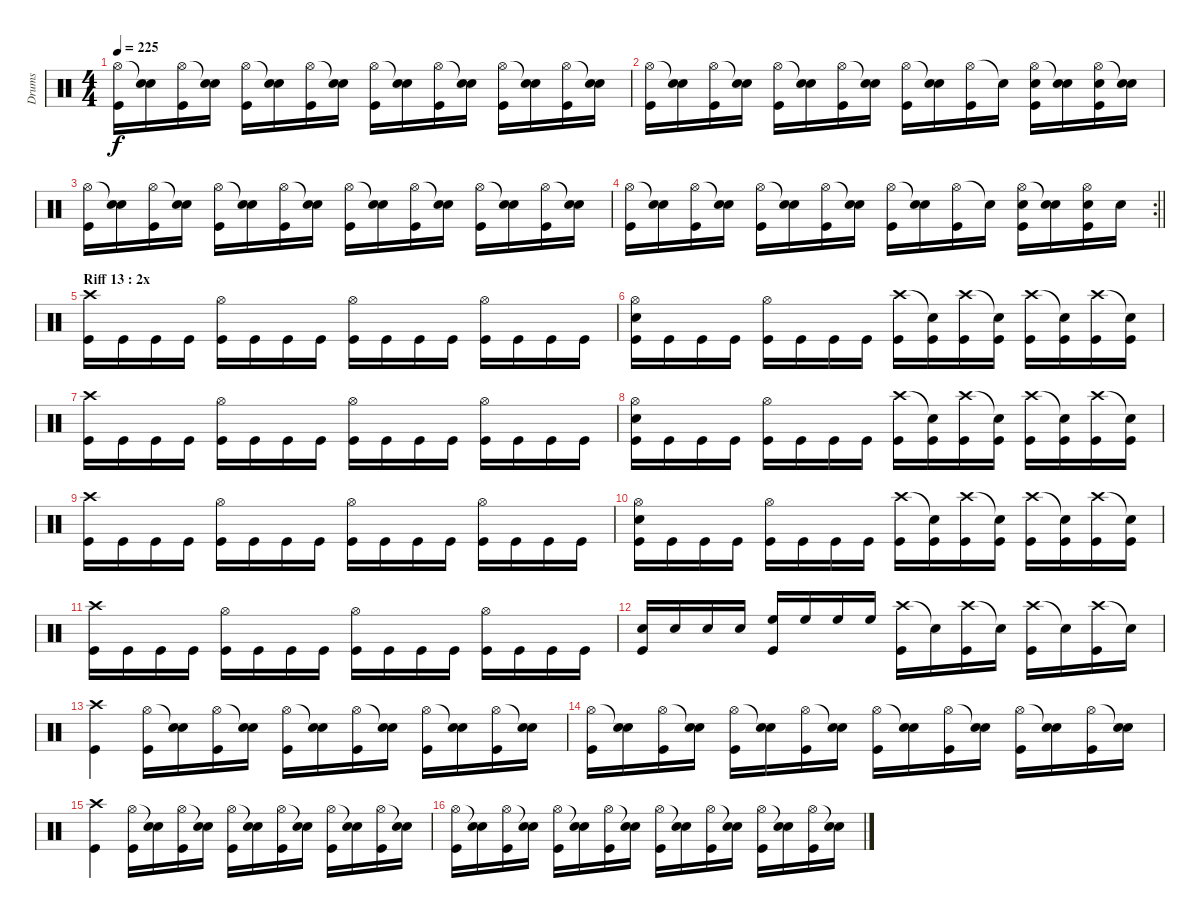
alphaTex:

\track ("Drums" "Drums") {instrument percussion}
\staff {score}
\articulation defaults
\ts (4 4)
\tempo 225
\clef neutral
\ks c
("Hi-Hat (open)" "Kick (hit)").16{dy f} ("Snare (hit)"{t} "Electric Snare (hit)").16 ("Hi-Hat (open)" "Kick (hit)").16 ("Snare (hit)"{t} "Electric Snare (hit)").16 ("Hi-Hat (open)" "Kick (hit)").16 ("Snare (hit)"{t} "Electric Snare (hit)").16 ("Hi-Hat (open)" "Kick (hit)").16 ("Snare (hit)"{t} "Electric Snare (hit)").16 ("Hi-Hat (open)" "Kick (hit)").16 ("Snare (hit)"{t} "Electric Snare (hit)").16 ("Hi-Hat (open)" "Kick (hit)").16 ("Snare (hit)"{t} "Electric Snare (hit)").16 ("Hi-Hat (open)" "Kick (hit)").16 ("Snare (hit)"{t} "Electric Snare (hit)").16 ("Hi-Hat (open)" "Kick (hit)").16 ("Snare (hit)"{t} "Electric Snare (hit)").16 |
("Hi-Hat (open)" "Kick (hit)").16 ("Snare (hit)"{t} "Electric Snare (hit)").16 ("Hi-Hat (open)" "Kick (hit)").16 ("Snare (hit)"{t} "Electric Snare (hit)").16 ("Hi-Hat (open)" "Kick (hit)").16 ("Snare (hit)"{t} "Electric Snare (hit)").16 ("Hi-Hat (open)" "Kick (hit)").16 ("Snare (hit)"{t} "Electric Snare (hit)").16 ("Hi-Hat (open)" "Kick (hit)").16 ("Snare (hit)"{t} "Electric Snare (hit)").16 ("Hi-Hat (open)" "Kick (hit)").16 "Snare (hit)"{t}.16 ("Hi-Hat (open)" "Electric Snare (hit)" "Kick (hit)").16 ("Snare (hit)"{t} "Electric Snare (hit)").16 ("Hi-Hat (open)" "Electric Snare (hit)" "Kick (hit)").16 ("Snare (hit)"{t} "Electric Snare (hit)").16 |
("Hi-Hat (open)" "Kick (hit)").16 ("Snare (hit)"{t} "Electric Snare (hit)").16 ("Hi-Hat (open)" "Kick (hit)").16 ("Snare (hit)"{t} "Electric Snare (hit)").16 ("Hi-Hat (open)" "Kick (hit)").16 ("Snare (hit)"{t} "Electric Snare (hit)").16 ("Hi-Hat (open)" "Kick (hit)").16 ("Snare (hit)"{t} "Electric Snare (hit)").16 ("Hi-Hat (open)" "Kick (hit)").16 ("Snare (hit)"{t} "Electric Snare (hit)").16 ("Hi-Hat (open)" "Kick (hit)").16 ("Snare (hit)"{t} "Electric Snare (hit)").16 ("Hi-Hat (open)" "Kick (hit)").16 ("Snare (hit)"{t} "Electric Snare (hit)").16 ("Hi-Hat (open)" "Kick (hit)").16 ("Snare (hit)"{t} "Electric Snare (hit)").16 |
\rc 2
\barLineRight lightlight
("Hi-Hat (open)" "Kick (hit)").16 ("Snare (hit)"{t} "Electric Snare (hit)").16 ("Hi-Hat (open)" "Kick (hit)").16 ("Snare (hit)"{t} "Electric Snare (hit)").16 ("Hi-Hat (open)" "Kick (hit)").16 ("Snare (hit)"{t} "Electric Snare (hit)").16 ("Hi-Hat (open)" "Kick (hit)").16 ("Snare (hit)"{t} "Electric Snare (hit)").16 ("Hi-Hat (open)" "Kick (hit)").16 ("Snare (hit)"{t} "Electric Snare (hit)").16 ("Hi-Hat (open)" "Kick (hit)").16 "Snare (hit)"{t}.16 ("Hi-Hat (open)" "Electric Snare (hit)" "Kick (hit)").16 ("Snare (hit)"{t} "Electric Snare (hit)").16 ("Hi-Hat (open)" "Electric Snare (hit)" "Kick (hit)").16 "Electric Snare (hit)".16 |
\section ("" "Riff 13 : 2x")
("Crash high (hit)" "Kick (hit)").16 "Kick (hit)".16 "Kick (hit)".16 "Kick (hit)".16 ("Hi-Hat (open)" "Kick (hit)").16 "Kick (hit)".16 "Kick (hit)".16 "Kick (hit)".16 ("Hi-Hat (open)" "Kick (hit)").16 "Kick (hit)".16 "Kick (hit)".16 "Kick (hit)".16 ("Hi-Hat (open)" "Kick (hit)").16 "Kick (hit)".16 "Kick (hit)".16 "Kick (hit)".16 |
("Hi-Hat (open)" "Electric Snare (hit)" "Kick (hit)").16 "Kick (hit)".16 "Kick (hit)".16 "Kick (hit)".16 ("Hi-Hat (open)" "Kick (hit)").16 "Kick (hit)".16 "Kick (hit)".16 "Kick (hit)".16 ("Crash high (hit)" "Kick (hit)").16 ("Snare (hit)"{t} "Kick (hit)").16 ("Crash high (hit)" "Kick (hit)").16 ("Snare (hit)"{t} "Kick (hit)").16 ("Crash high (hit)" "Kick (hit)").16 ("Snare (hit)"{t} "Kick (hit)").16 ("Crash high (hit)" "Kick (hit)").16 ("Snare (hit)"{t} "Kick (hit)").16 |
("Crash high (hit)" "Kick (hit)").16 "Kick (hit)".16 "Kick (hit)".16 "Kick (hit)".16 ("Hi-Hat (open)" "Kick (hit)").16 "Kick (hit)".16 "Kick (hit)".16 "Kick (hit)".16 ("Hi-Hat (open)" "Kick (hit)").16 "Kick (hit)".16 "Kick (hit)".16 "Kick (hit)".16 ("Hi-Hat (open)" "Kick (hit)").16 "Kick (hit)".16 "Kick (hit)".16 "Kick (hit)".16 |
("Hi-Hat (open)" "Electric Snare (hit)" "Kick (hit)").16 "Kick (hit)".16 "Kick (hit)".16 "Kick (hit)".16 ("Hi-Hat (open)" "Kick (hit)").16 "Kick (hit)".16 "Kick (hit)".16 "Kick (hit)".16 ("Crash high (hit)" "Kick (hit)").16 ("Snare (hit)"{t} "Kick (hit)").16 ("Crash high (hit)" "Kick (hit)").16 ("Snare (hit)"{t} "Kick (hit)").16 ("Crash high (hit)" "Kick (hit)").16 ("Snare (hit)"{t} "Kick (hit)").16 ("Crash high (hit)" "Kick (hit)").16 ("Snare (hit)"{t} "Kick (hit)").16 |
("Crash high (hit)" "Kick (hit)").16 "Kick (hit)".16 "Kick (hit)".16 "Kick (hit)".16 ("Hi-Hat (open)" "Kick (hit)").16 "Kick (hit)".16 "Kick (hit)".16 "Kick (hit)".16 ("Hi-Hat (open)" "Kick (hit)").16 "Kick (hit)".16 "Kick (hit)".16 "Kick (hit)".16 ("Hi-Hat (open)" "Kick (hit)").16 "Kick (hit)".16 "Kick (hit)".16 "Kick (hit)".16 |
("Hi-Hat (open)" "Electric Snare (hit)" "Kick (hit)").16 "Kick (hit)".16 "Kick (hit)".16 "Kick (hit)".16 ("Hi-Hat (open)" "Kick (hit)").16 "Kick (hit)".16 "Kick (hit)".16 "Kick (hit)".16 ("Crash high (hit)" "Kick (hit)").16 ("Snare (hit)"{t} "Kick (hit)").16 ("Crash high (hit)" "Kick (hit)").16 ("Snare (hit)"{t} "Kick (hit)").16 ("Crash high (hit)" "Kick (hit)").16 ("Snare (hit)"{t} "Kick (hit)").16 ("Crash high (hit)" "Kick (hit)").16 ("Snare (hit)"{t} "Kick (hit)").16 |
("Crash high (hit)" "Kick (hit)").16 "Kick (hit)".16 "Kick (hit)".16 "Kick (hit)".16 ("Hi-Hat (open)" "Kick (hit)").16 "Kick (hit)".16 "Kick (hit)".16 "Kick (hit)".16 ("Hi-Hat (open)" "Kick (hit)").16 "Kick (hit)".16 "Kick (hit)".16 "Kick (hit)".16 ("Hi-Hat (open)" "Kick (hit)").16 "Kick (hit)".16 "Kick (hit)".16 "Kick (hit)".16 |
("Electric Snare (hit)" "Kick (hit)").16 "Electric Snare (hit)".16 "Electric Snare (hit)".16 "Electric Snare (hit)".16 ("High Floor Tom (hit)" "Kick (hit)").16 "High Floor Tom (hit)".16 "High Floor Tom (hit)".16 "High Floor Tom (hit)".16 ("Crash high (hit)" "Kick (hit)").16 "Snare (hit)"{t}.16 ("Crash high (hit)" "Kick (hit)").16 "Snare (hit)"{t}.16 ("Crash high (hit)" "Kick (hit)").16 "Snare (hit)"{t}.16 ("Crash high (hit)" "Kick (hit)").16 "Snare (hit)"{t}.16 |
("Crash high (hit)" "Kick (hit)").4 ("Hi-Hat (open)" "Kick (hit)").16 ("Snare (hit)"{t} "Electric Snare (hit)").16 ("Hi-Hat (open)" "Kick (hit)").16 ("Snare (hit)"{t} "Electric Snare (hit)").16 ("Hi-Hat (open)" "Kick (hit)").16 ("Snare (hit)"{t} "Electric Snare (hit)").16 ("Hi-Hat (open)" "Kick (hit)").16 ("Snare (hit)"{t} "Electric Snare (hit)").16 ("Hi-Hat (open)" "Kick (hit)").16 ("Snare (hit)"{t} "Electric Snare (hit)").16 ("Hi-Hat (open)" "Kick (hit)").16 ("Snare (hit)"{t} "Electric Snare (hit)").16 |
("Hi-Hat (open)" "Kick (hit)").16 ("Snare (hit)"{t} "Electric Snare (hit)").16 ("Hi-Hat (open)" "Kick (hit)").16 ("Snare (hit)"{t} "Electric Snare (hit)").16 ("Hi-Hat (open)" "Kick (hit)").16 ("Snare (hit)"{t} "Electric Snare (hit)").16 ("Hi-Hat (open)" "Kick (hit)").16 ("Snare (hit)"{t} "Electric Snare (hit)").16 ("Hi-Hat (open)" "Kick (hit)").16 ("Snare (hit)"{t} "Electric Snare (hit)").16 ("Hi-Hat (open)" "Kick (hit)").16 ("Snare (hit)"{t} "Electric Snare (hit)").16 ("Hi-Hat (open)" "Kick (hit)").16 ("Snare (hit)"{t} "Electric Snare (hit)").16 ("Hi-Hat (open)" "Kick (hit)").16 ("Snare (hit)"{t} "Electric Snare (hit)").16 |
("Crash high (hit)" "Kick (hit)").4 ("Hi-Hat (open)" "Kick (hit)").16 ("Snare (hit)"{t} "Electric Snare (hit)").16 ("Hi-Hat (open)" "Kick (hit)").16 ("Snare (hit)"{t} "Electric Snare (hit)").16 ("Hi-Hat (open)" "Kick (hit)").16 ("Snare (hit)"{t} "Electric Snare (hit)").16 ("Hi-Hat (open)" "Kick (hit)").16 ("Snare (hit)"{t} "Electric Snare (hit)").16 ("Hi-Hat (open)" "Kick (hit)").16 ("Snare (hit)"{t} "Electric Snare (hit)").16 ("Hi-Hat (open)" "Kick (hit)").16 ("Snare (hit)"{t} "Electric Snare (hit)").16 |
("Hi-Hat (open)" "Kick (hit)").16 ("Snare (hit)"{t} "Electric Snare (hit)").16 ("Hi-Hat (open)" "Kick (hit)").16 ("Snare (hit)"{t} "Electric Snare (hit)").16 ("Hi-Hat (open)" "Kick (hit)").16 ("Snare (hit)"{t} "Electric Snare (hit)").16 ("Hi-Hat (open)" "Kick (hit)").16 ("Snare (hit)"{t} "Electric Snare (hit)").16 ("Hi-Hat (open)" "Kick (hit)").16 ("Snare (hit)"{t} "Electric Snare (hit)").16 ("Hi-Hat (open)" "Kick (hit)").16 ("Snare (hit)"{t} "Electric Snare (hit)").16 ("Hi-Hat (open)" "Kick (hit)").16 ("Snare (hit)"{t} "Electric Snare (hit)").16 ("Hi-Hat (open)" "Kick (hit)").16 ("Snare (hit)"{t} "Electric Snare (hit)").16
